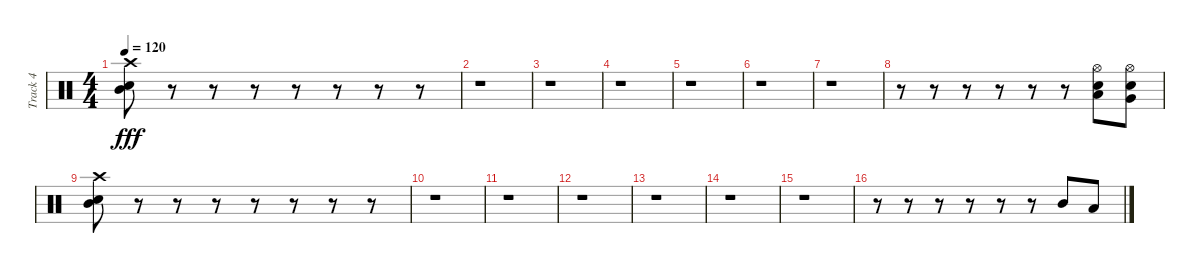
\track ("Track 4" "Track 4") {instrument percussion}
\staff {score}
\articulation defaults
\ts (4 4)
\tempo 120
\clef neutral
\ks c
("Crash high (hit)" "Mid Tom (hit)" "Electric Snare (hit)").8{dy fff} r.8 r.8 r.8 r.8 r.8 r.8 r.8 |
r.1 |
r.1 |
r.1 |
r.1 |
r.1 |
r.1 |
r.8 r.8 r.8 r.8 r.8 r.8 ("Low Tom (hit)" "Hi-Hat (open)" "Electric Snare (hit)").8 ("Hi-Hat (open)" "Very Low Tom (hit)" "Snare (hit) 2").8 |
("Crash high (hit)" "Mid Tom (hit)" "Electric Snare (hit)").8 r.8 r.8 r.8 r.8 r.8 r.8 r.8 |
r.1 |
r.1 |
r.1 |
r.1 |
r.1 |
r.1 |
r.8 r.8 r.8 r.8 r.8 r.8 "Mid Tom (hit)".8 "Low Tom (hit)".8
